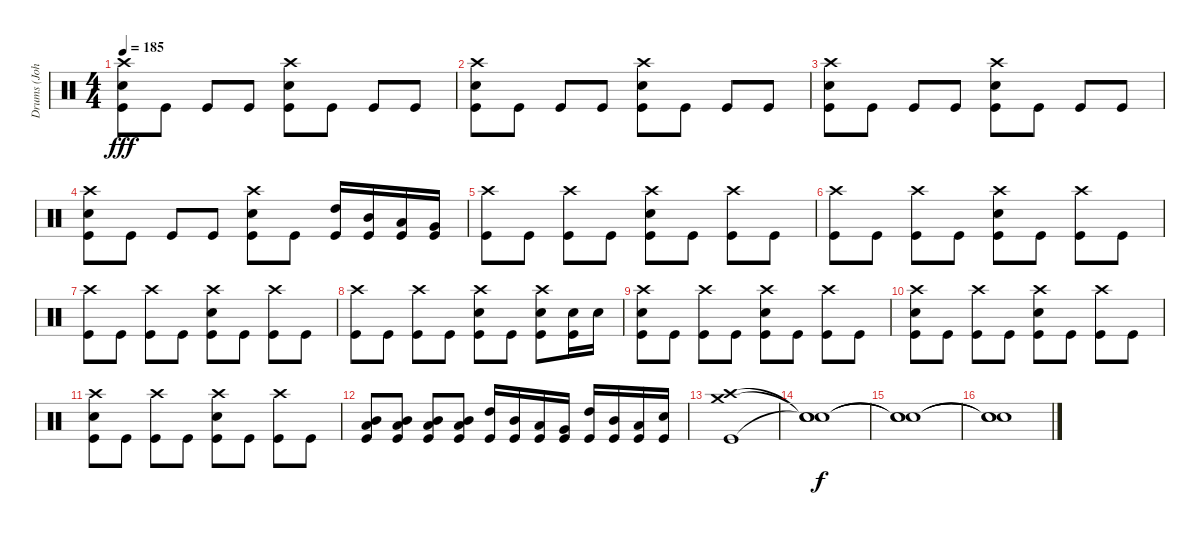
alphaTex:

\track ("Drums (John Bengtsson)" "Drums (Joh") {instrument percussion}
\staff {score}
\articulation defaults
\ts (4 4)
\tempo 185
\clef neutral
\ks c
("Crash high (hit)" "Electric Snare (hit)" "Kick (hit)").8{dy fff} "Kick (hit)".8 "Kick (hit)".8 "Kick (hit)".8 ("Crash high (hit)" "Electric Snare (hit)" "Kick (hit)").8 "Kick (hit)".8 "Kick (hit)".8 "Kick (hit)".8 |
("Crash high (hit)" "Electric Snare (hit)" "Kick (hit)").8 "Kick (hit)".8 "Kick (hit)".8 "Kick (hit)".8 ("Crash high (hit)" "Electric Snare (hit)" "Kick (hit)").8 "Kick (hit)".8 "Kick (hit)".8 "Kick (hit)".8 |
("Crash high (hit)" "Electric Snare (hit)" "Kick (hit)").8 "Kick (hit)".8 "Kick (hit)".8 "Kick (hit)".8 ("Crash high (hit)" "Electric Snare (hit)" "Kick (hit)").8 "Kick (hit)".8 "Kick (hit)".8 "Kick (hit)".8 |
("Crash high (hit)" "Electric Snare (hit)" "Kick (hit)").8 "Kick (hit)".8 "Kick (hit)".8 "Kick (hit)".8 ("Crash high (hit)" "Electric Snare (hit)" "Kick (hit)").8 "Kick (hit)".8 ("High Tom (hit)" "Kick (hit)").16 ("Mid Tom (hit)" "Kick (hit)").16 ("Low Tom (hit)" "Kick (hit)").16 ("Very Low Tom (hit)" "Kick (hit)").16 |
("Crash high (hit)" "Kick (hit)").8 "Kick (hit)".8 ("Crash high (hit)" "Kick (hit)").8 "Kick (hit)".8 ("Crash high (hit)" "Electric Snare (hit)" "Kick (hit)").8 "Kick (hit)".8 ("Crash high (hit)" "Kick (hit)").8 "Kick (hit)".8 |
("Crash high (hit)" "Kick (hit)").8 "Kick (hit)".8 ("Crash high (hit)" "Kick (hit)").8 "Kick (hit)".8 ("Crash high (hit)" "Electric Snare (hit)" "Kick (hit)").8 "Kick (hit)".8 ("Crash high (hit)" "Kick (hit)").8 "Kick (hit)".8 |
("Crash high (hit)" "Kick (hit)").8 "Kick (hit)".8 ("Crash high (hit)" "Kick (hit)").8 "Kick (hit)".8 ("Crash high (hit)" "Electric Snare (hit)" "Kick (hit)").8 "Kick (hit)".8 ("Crash high (hit)" "Kick (hit)").8 "Kick (hit)".8 |
("Crash high (hit)" "Kick (hit)").8 "Kick (hit)".8 ("Crash high (hit)" "Kick (hit)").8 "Kick (hit)".8 ("Crash high (hit)" "Electric Snare (hit)" "Kick (hit)").8 "Kick (hit)".8 ("Crash high (hit)" "Electric Snare (hit)" "Kick (hit)").8 ("Electric Snare (hit)" "Kick (hit)").16 "Electric Snare (hit)".16 |
("Crash high (hit)" "Electric Snare (hit)" "Kick (hit)").8 "Kick (hit)".8 ("Crash high (hit)" "Kick (hit)").8 "Kick (hit)".8 ("Crash high (hit)" "Electric Snare (hit)" "Kick (hit)").8 "Kick (hit)".8 ("Crash high (hit)" "Kick (hit)").8 "Kick (hit)".8 |
("Crash high (hit)" "Electric Snare (hit)" "Kick (hit)").8 "Kick (hit)".8 ("Crash high (hit)" "Kick (hit)").8 "Kick (hit)".8 ("Crash high (hit)" "Electric Snare (hit)" "Kick (hit)").8 "Kick (hit)".8 ("Crash high (hit)" "Kick (hit)").8 "Kick (hit)".8 |
("Crash high (hit)" "Electric Snare (hit)" "Kick (hit)").8 "Kick (hit)".8 ("Crash high (hit)" "Kick (hit)").8 "Kick (hit)".8 ("Crash high (hit)" "Electric Snare (hit)" "Kick (hit)").8 "Kick (hit)".8 ("Crash high (hit)" "Kick (hit)").8 "Kick (hit)".8 |
("Mid Tom (hit)" "Low Tom (hit)" "Kick (hit)").8 ("Mid Tom (hit)" "Low Tom (hit)" "Kick (hit)").8 ("Mid Tom (hit)" "Low Tom (hit)" "Kick (hit)").8 ("Mid Tom (hit)" "Low Tom (hit)" "Kick (hit)").8 ("High Tom (hit)" "Kick (hit)").16 ("Mid Tom (hit)" "Kick (hit)").16 ("Low Tom (hit)" "Kick (hit)").16 ("Very Low Tom (hit)" "Kick (hit)").16 ("High Tom (hit)" "Kick (hit)").16 ("Mid Tom (hit)" "Kick (hit)").16 ("Low Tom (hit)" "Kick (hit)").16 ("Electric Snare (hit)" "Kick (hit)").16 |
("Crash high (hit)" "Crash medium (hit)" "Kick (hit)").1 |
("Snare (hit)"{t} "Snare (hit)"{t} "Snare (hit)"{t}).1{dy f} |
("Snare (hit)"{t} "Snare (hit)"{t} "Snare (hit)"{t}).1 |
("Snare (hit)"{t} "Snare (hit)"{t} "Snare (hit)"{t}).1
